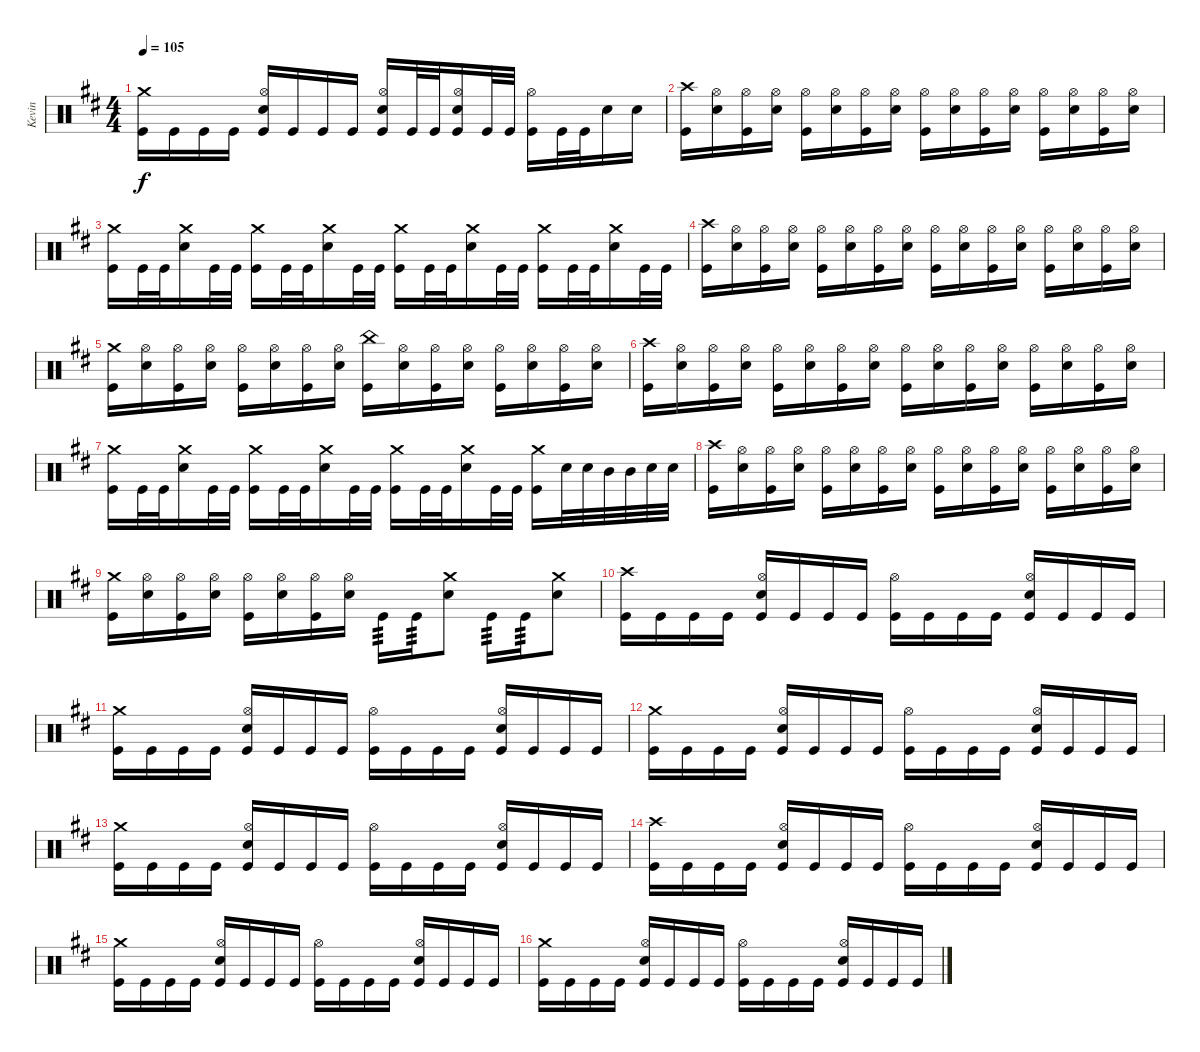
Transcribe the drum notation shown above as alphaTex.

\track ("Kevin" "Kevin") {instrument percussion}
\staff {score}
\articulation defaults
\ts (4 4)
\tempo 105
\clef neutral
\ks d
("Crash medium (hit)" "Kick (hit)").16{dy f} "Kick (hit)".16 "Kick (hit)".16 "Kick (hit)".16 ("Hi-Hat (open)" "Snare (hit) 2" "Kick (hit)").16 "Kick (hit)".16 "Kick (hit)".16 "Kick (hit)".16 ("Hi-Hat (open)" "Snare (hit) 2" "Kick (hit)").16 "Kick (hit)".32 "Kick (hit)".32 ("Hi-Hat (open)" "Snare (hit) 2" "Kick (hit)").16 "Kick (hit)".32 "Kick (hit)".32 ("Hi-Hat (open)" "Kick (hit)").16 "Kick (hit)".32 "Kick (hit)".32 "Snare (hit) 2".16 "Snare (hit) 2".16 |
("Crash high (hit)" "Kick (hit)").16 ("Hi-Hat (open)" "Snare (hit) 2").16 ("Hi-Hat (open)" "Kick (hit)").16 ("Hi-Hat (open)" "Snare (hit) 2").16 ("Hi-Hat (open)" "Kick (hit)").16 ("Hi-Hat (open)" "Snare (hit) 2").16 ("Hi-Hat (open)" "Kick (hit)").16 ("Hi-Hat (open)" "Snare (hit) 2").16 ("Hi-Hat (open)" "Kick (hit)").16 ("Hi-Hat (open)" "Snare (hit) 2").16 ("Hi-Hat (open)" "Kick (hit)").16 ("Hi-Hat (open)" "Snare (hit) 2").16 ("Hi-Hat (open)" "Kick (hit)").16 ("Hi-Hat (open)" "Snare (hit) 2").16 ("Hi-Hat (open)" "Kick (hit)").16 ("Hi-Hat (open)" "Snare (hit) 2").16 |
("Crash medium (hit)" "Kick (hit)").16 "Kick (hit)".32 "Kick (hit)".32 ("Crash medium (hit)" "Snare (hit) 2").16 "Kick (hit)".32 "Kick (hit)".32 ("Crash medium (hit)" "Kick (hit)").16 "Kick (hit)".32 "Kick (hit)".32 ("Crash medium (hit)" "Snare (hit) 2").16 "Kick (hit)".32 "Kick (hit)".32 ("Crash medium (hit)" "Kick (hit)").16 "Kick (hit)".32 "Kick (hit)".32 ("Crash medium (hit)" "Snare (hit) 2").16 "Kick (hit)".32 "Kick (hit)".32 ("Crash medium (hit)" "Kick (hit)").16 "Kick (hit)".32 "Kick (hit)".32 ("Crash medium (hit)" "Snare (hit) 2").16 "Kick (hit)".32 "Kick (hit)".32 |
("Crash high (hit)" "Kick (hit)").16 ("Hi-Hat (open)" "Snare (hit) 2").16 ("Hi-Hat (open)" "Kick (hit)").16 ("Hi-Hat (open)" "Snare (hit) 2").16 ("Hi-Hat (open)" "Kick (hit)").16 ("Hi-Hat (open)" "Snare (hit) 2").16 ("Hi-Hat (open)" "Kick (hit)").16 ("Hi-Hat (open)" "Snare (hit) 2").16 ("Hi-Hat (open)" "Kick (hit)").16 ("Hi-Hat (open)" "Snare (hit) 2").16 ("Hi-Hat (open)" "Kick (hit)").16 ("Hi-Hat (open)" "Snare (hit) 2").16 ("Hi-Hat (open)" "Kick (hit)").16 ("Hi-Hat (open)" "Snare (hit) 2").16 ("Hi-Hat (open)" "Kick (hit)").16 ("Hi-Hat (open)" "Snare (hit) 2").16 |
("Crash medium (hit)" "Kick (hit)").16 ("Hi-Hat (open)" "Snare (hit) 2").16 ("Hi-Hat (open)" "Kick (hit)").16 ("Hi-Hat (open)" "Snare (hit) 2").16 ("Hi-Hat (open)" "Kick (hit)").16 ("Hi-Hat (open)" "Snare (hit) 2").16 ("Hi-Hat (open)" "Kick (hit)").16 ("Hi-Hat (open)" "Snare (hit) 2").16 ("China (hit)" "Kick (hit)").16 ("Hi-Hat (open)" "Snare (hit) 2").16 ("Hi-Hat (open)" "Kick (hit)").16 ("Hi-Hat (open)" "Snare (hit) 2").16 ("Hi-Hat (open)" "Kick (hit)").16 ("Hi-Hat (open)" "Snare (hit) 2").16 ("Hi-Hat (open)" "Kick (hit)").16 ("Hi-Hat (open)" "Snare (hit) 2").16 |
("Crash high (hit)" "Kick (hit)").16 ("Hi-Hat (open)" "Snare (hit) 2").16 ("Hi-Hat (open)" "Kick (hit)").16 ("Hi-Hat (open)" "Snare (hit) 2").16 ("Hi-Hat (open)" "Kick (hit)").16 ("Hi-Hat (open)" "Snare (hit) 2").16 ("Hi-Hat (open)" "Kick (hit)").16 ("Hi-Hat (open)" "Snare (hit) 2").16 ("Hi-Hat (open)" "Kick (hit)").16 ("Hi-Hat (open)" "Snare (hit) 2").16 ("Hi-Hat (open)" "Kick (hit)").16 ("Hi-Hat (open)" "Snare (hit) 2").16 ("Hi-Hat (open)" "Kick (hit)").16 ("Hi-Hat (open)" "Snare (hit) 2").16 ("Hi-Hat (open)" "Kick (hit)").16 ("Hi-Hat (open)" "Snare (hit) 2").16 |
("Crash medium (hit)" "Kick (hit)").16 "Kick (hit)".32 "Kick (hit)".32 ("Crash medium (hit)" "Snare (hit) 2").16 "Kick (hit)".32 "Kick (hit)".32 ("Crash medium (hit)" "Kick (hit)").16 "Kick (hit)".32 "Kick (hit)".32 ("Crash medium (hit)" "Snare (hit) 2").16 "Kick (hit)".32 "Kick (hit)".32 ("Crash medium (hit)" "Kick (hit)").16 "Kick (hit)".32 "Kick (hit)".32 ("Crash medium (hit)" "Snare (hit) 2").16 "Kick (hit)".32 "Kick (hit)".32 ("Crash medium (hit)" "Kick (hit)").16 "Snare (hit) 2".32 "Snare (hit) 2".32 "Mid Tom (hit)".32 "Mid Tom (hit)".32 "Snare (hit) 2".32 "Snare (hit) 2".32 |
("Crash high (hit)" "Kick (hit)").16 ("Hi-Hat (open)" "Snare (hit) 2").16 ("Hi-Hat (open)" "Kick (hit)").16 ("Hi-Hat (open)" "Snare (hit) 2").16 ("Hi-Hat (open)" "Kick (hit)").16 ("Hi-Hat (open)" "Snare (hit) 2").16 ("Hi-Hat (open)" "Kick (hit)").16 ("Hi-Hat (open)" "Snare (hit) 2").16 ("Hi-Hat (open)" "Kick (hit)").16 ("Hi-Hat (open)" "Snare (hit) 2").16 ("Hi-Hat (open)" "Kick (hit)").16 ("Hi-Hat (open)" "Snare (hit) 2").16 ("Hi-Hat (open)" "Kick (hit)").16 ("Hi-Hat (open)" "Snare (hit) 2").16 ("Hi-Hat (open)" "Kick (hit)").16 ("Hi-Hat (open)" "Snare (hit) 2").16 |
("Crash medium (hit)" "Kick (hit)").16 ("Hi-Hat (open)" "Snare (hit) 2").16 ("Hi-Hat (open)" "Kick (hit)").16 ("Hi-Hat (open)" "Snare (hit) 2").16 ("Hi-Hat (open)" "Kick (hit)").16 ("Hi-Hat (open)" "Snare (hit) 2").16 ("Hi-Hat (open)" "Kick (hit)").16 ("Hi-Hat (open)" "Snare (hit) 2").16 "Kick (hit)".16{tp 3} "Kick (hit)".16{tp 3} ("Crash medium (hit)" "Snare (hit) 2").8 "Kick (hit)".16{tp 3} "Kick (hit)".16{tp 3} ("Crash medium (hit)" "Snare (hit) 2").8 |
("Crash high (hit)" "Kick (hit)").16 "Kick (hit)".16 "Kick (hit)".16 "Kick (hit)".16 ("Hi-Hat (open)" "Snare (hit) 2" "Kick (hit)").16 "Kick (hit)".16 "Kick (hit)".16 "Kick (hit)".16 ("Hi-Hat (open)" "Kick (hit)").16 "Kick (hit)".16 "Kick (hit)".16 "Kick (hit)".16 ("Hi-Hat (open)" "Snare (hit) 2" "Kick (hit)").16 "Kick (hit)".16 "Kick (hit)".16 "Kick (hit)".16 |
("Crash medium (hit)" "Kick (hit)").16 "Kick (hit)".16 "Kick (hit)".16 "Kick (hit)".16 ("Hi-Hat (open)" "Snare (hit) 2" "Kick (hit)").16 "Kick (hit)".16 "Kick (hit)".16 "Kick (hit)".16 ("Hi-Hat (open)" "Kick (hit)").16 "Kick (hit)".16 "Kick (hit)".16 "Kick (hit)".16 ("Hi-Hat (open)" "Snare (hit) 2" "Kick (hit)").16 "Kick (hit)".16 "Kick (hit)".16 "Kick (hit)".16 |
("Crash medium (hit)" "Kick (hit)").16 "Kick (hit)".16 "Kick (hit)".16 "Kick (hit)".16 ("Hi-Hat (open)" "Snare (hit) 2" "Kick (hit)").16 "Kick (hit)".16 "Kick (hit)".16 "Kick (hit)".16 ("Hi-Hat (open)" "Kick (hit)").16 "Kick (hit)".16 "Kick (hit)".16 "Kick (hit)".16 ("Hi-Hat (open)" "Snare (hit) 2" "Kick (hit)").16 "Kick (hit)".16 "Kick (hit)".16 "Kick (hit)".16 |
("Crash medium (hit)" "Kick (hit)").16 "Kick (hit)".16 "Kick (hit)".16 "Kick (hit)".16 ("Hi-Hat (open)" "Snare (hit) 2" "Kick (hit)").16 "Kick (hit)".16 "Kick (hit)".16 "Kick (hit)".16 ("Hi-Hat (open)" "Kick (hit)").16 "Kick (hit)".16 "Kick (hit)".16 "Kick (hit)".16 ("Hi-Hat (open)" "Snare (hit) 2" "Kick (hit)").16 "Kick (hit)".16 "Kick (hit)".16 "Kick (hit)".16 |
("Crash high (hit)" "Kick (hit)").16 "Kick (hit)".16 "Kick (hit)".16 "Kick (hit)".16 ("Hi-Hat (open)" "Snare (hit) 2" "Kick (hit)").16 "Kick (hit)".16 "Kick (hit)".16 "Kick (hit)".16 ("Hi-Hat (open)" "Kick (hit)").16 "Kick (hit)".16 "Kick (hit)".16 "Kick (hit)".16 ("Hi-Hat (open)" "Snare (hit) 2" "Kick (hit)").16 "Kick (hit)".16 "Kick (hit)".16 "Kick (hit)".16 |
("Crash medium (hit)" "Kick (hit)").16 "Kick (hit)".16 "Kick (hit)".16 "Kick (hit)".16 ("Hi-Hat (open)" "Snare (hit) 2" "Kick (hit)").16 "Kick (hit)".16 "Kick (hit)".16 "Kick (hit)".16 ("Hi-Hat (open)" "Kick (hit)").16 "Kick (hit)".16 "Kick (hit)".16 "Kick (hit)".16 ("Hi-Hat (open)" "Snare (hit) 2" "Kick (hit)").16 "Kick (hit)".16 "Kick (hit)".16 "Kick (hit)".16 |
("Crash medium (hit)" "Kick (hit)").16 "Kick (hit)".16 "Kick (hit)".16 "Kick (hit)".16 ("Hi-Hat (open)" "Snare (hit) 2" "Kick (hit)").16 "Kick (hit)".16 "Kick (hit)".16 "Kick (hit)".16 ("Hi-Hat (open)" "Kick (hit)").16 "Kick (hit)".16 "Kick (hit)".16 "Kick (hit)".16 ("Hi-Hat (open)" "Snare (hit) 2" "Kick (hit)").16 "Kick (hit)".16 "Kick (hit)".16 "Kick (hit)".16
